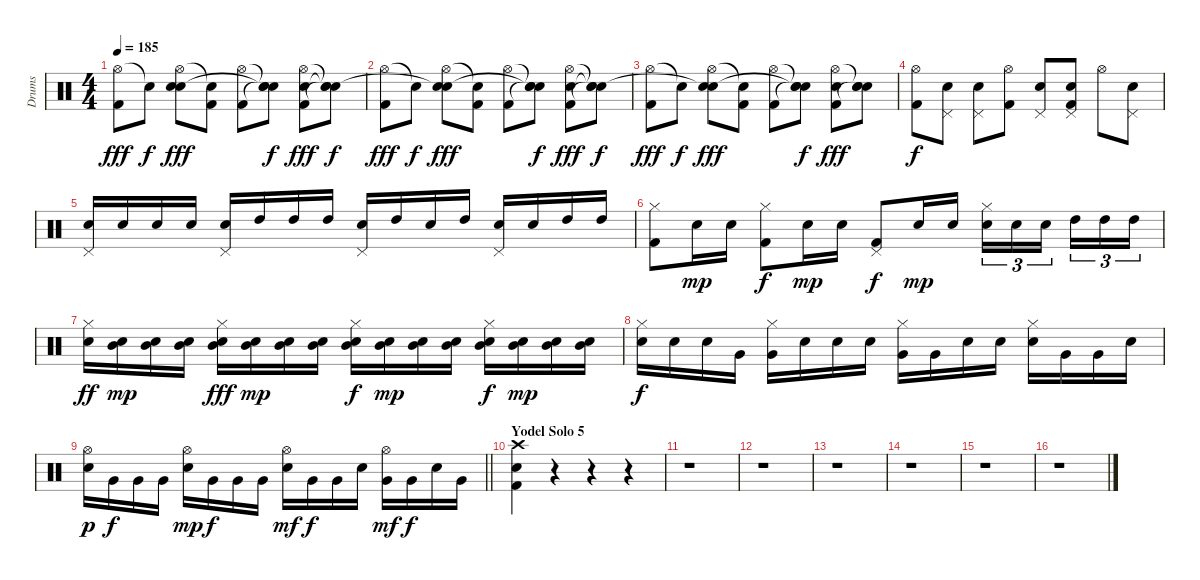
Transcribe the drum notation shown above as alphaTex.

\track ("Drums" "Drums") {instrument percussion}
\staff {score}
\articulation defaults
\ts (4 4)
\tempo 185
\clef neutral
\ks c
("Hi-Hat (open)" "Kick (hit) 2").8{dy fff} "Snare (hit)"{t}.8{dy f} ("Hi-Hat (open)" "Electric Snare (hit)" "Snare (hit)"{t}).8{dy fff} ("Snare (hit)"{t} "Kick (hit) 2").8 ("Hi-Hat (open)" "Kick (hit) 2").8 ("Snare (hit)"{t} "Snare (hit)"{t} "Snare (hit)"{t}).8{dy f} ("Hi-Hat (open)" "Electric Snare (hit)" "Kick (hit) 2").8{dy fff} ("Snare (hit)"{t} "Snare (hit)"{t} "Snare (hit)"{t}).8{dy f} |
("Hi-Hat (open)" "Kick (hit) 2").8{dy fff} "Snare (hit)"{t}.8{dy f} ("Hi-Hat (open)" "Electric Snare (hit)" "Snare (hit)"{t}).8{dy fff} ("Snare (hit)"{t} "Kick (hit) 2").8 ("Hi-Hat (open)" "Kick (hit) 2").8 ("Snare (hit)"{t} "Snare (hit)"{t} "Snare (hit)"{t}).8{dy f} ("Hi-Hat (open)" "Electric Snare (hit)" "Kick (hit) 2").8{dy fff} ("Snare (hit)"{t} "Snare (hit)"{t} "Snare (hit)"{t}).8{dy f} |
("Hi-Hat (open)" "Kick (hit) 2").8{dy fff} "Snare (hit)"{t}.8{dy f} ("Hi-Hat (open)" "Electric Snare (hit)" "Snare (hit)"{t}).8{dy fff} ("Snare (hit)"{t} "Kick (hit) 2").8 ("Hi-Hat (open)" "Kick (hit) 2").8 ("Snare (hit)"{t} "Snare (hit)"{t} "Snare (hit)"{t}).8{dy f} ("Hi-Hat (open)" "Electric Snare (hit)" "Kick (hit) 2").8{dy fff} ("Snare (hit)"{t} "Electric Snare (hit)" "Snare (hit)"{t}).8 |
("Hi-Hat (open)" "Kick (hit) 2").8{dy f} ("Pedal Hi-Hat (hit)" "Electric Snare (hit)").8 ("Pedal Hi-Hat (hit)" "Electric Snare (hit)").8 ("Hi-Hat (open)" "Kick (hit) 2").8 ("Pedal Hi-Hat (hit)" "Electric Snare (hit)").8 ("Pedal Hi-Hat (hit)" "Electric Snare (hit)" "Kick (hit) 2").8 "Hi-Hat (open)".8 ("Pedal Hi-Hat (hit)" "Electric Snare (hit)").8 |
("Pedal Hi-Hat (hit)" "Electric Snare (hit)").16 "Electric Snare (hit)".16 "Electric Snare (hit)".16 "Electric Snare (hit)".16 ("Pedal Hi-Hat (hit)" "Electric Snare (hit)").16 "High Tom (hit)".16 "High Tom (hit)".16 "High Tom (hit)".16 ("Pedal Hi-Hat (hit)" "Electric Snare (hit)").16 "High Tom (hit)".16 "Electric Snare (hit)".16 "High Tom (hit)".16 ("Pedal Hi-Hat (hit)" "Electric Snare (hit)").16 "Electric Snare (hit)".16 "High Tom (hit)".16 "High Tom (hit)".16 |
("Hi-Hat (closed)" "Kick (hit) 2").8 "Electric Snare (hit)".16{dy mp} "Electric Snare (hit)".16 ("Hi-Hat (closed)" "Kick (hit) 2").8{dy f} "Electric Snare (hit)".16{dy mp} "Electric Snare (hit)".16 ("Pedal Hi-Hat (hit)" "Kick (hit) 2").8{dy f} "Electric Snare (hit)".16{dy mp} "Electric Snare (hit)".16 ("Hi-Hat (closed)" "Electric Snare (hit)").16{tu (3 2)} "Electric Snare (hit)".16{tu (3 2)} "Electric Snare (hit)".16{tu (3 2) beam splitsecondary} "High Tom (hit)".16{tu (3 2)} "High Tom (hit)".16{tu (3 2)} "High Tom (hit)".16{tu (3 2)} |
("Hi-Hat (closed)" "Electric Snare (hit)").16{dy ff} ("Electric Snare (hit)" "Mid Tom (hit)").16{dy mp} ("Electric Snare (hit)" "Mid Tom (hit)").16 ("Electric Snare (hit)" "Mid Tom (hit)").16 ("Hi-Hat (closed)" "Electric Snare (hit)" "Mid Tom (hit)").16{dy fff} ("Electric Snare (hit)" "Mid Tom (hit)").16{dy mp} ("Electric Snare (hit)" "Mid Tom (hit)").16 ("Electric Snare (hit)" "Mid Tom (hit)").16 ("Hi-Hat (closed)" "Electric Snare (hit)" "Mid Tom (hit)").16{dy f} ("Electric Snare (hit)" "Mid Tom (hit)").16{dy mp} ("Electric Snare (hit)" "Mid Tom (hit)").16 ("Electric Snare (hit)" "Mid Tom (hit)").16 ("Hi-Hat (closed)" "Electric Snare (hit)" "Mid Tom (hit)").16{dy f} ("Electric Snare (hit)" "Mid Tom (hit)").16{dy mp} ("Electric Snare (hit)" "Mid Tom (hit)").16 ("Electric Snare (hit)" "Mid Tom (hit)").16 |
("Hi-Hat (closed)" "Electric Snare (hit)").16{dy f} "Electric Snare (hit)".16 "Electric Snare (hit)".16 "Very Low Tom (hit)".16 ("Hi-Hat (closed)" "Very Low Tom (hit)").16 "Electric Snare (hit)".16 "Electric Snare (hit)".16 "Electric Snare (hit)".16 ("Hi-Hat (closed)" "Very Low Tom (hit)").16 "Very Low Tom (hit)".16 "Electric Snare (hit)".16 "Electric Snare (hit)".16 ("Hi-Hat (closed)" "Electric Snare (hit)").16 "Very Low Tom (hit)".16 "Very Low Tom (hit)".16 "Electric Snare (hit)".16 |
\barLineRight lightlight
("Hi-Hat (open)" "Electric Snare (hit)").16{dy p} "Very Low Tom (hit)".16{dy f} "Very Low Tom (hit)".16 "Very Low Tom (hit)".16 ("Hi-Hat (open)" "Electric Snare (hit)").16{dy mp} "Very Low Tom (hit)".16{dy f} "Very Low Tom (hit)".16 "Very Low Tom (hit)".16 ("Hi-Hat (open)" "Electric Snare (hit)").16{dy mf} "Very Low Tom (hit)".16{dy f} "Very Low Tom (hit)".16 "Electric Snare (hit)".16 ("Hi-Hat (open)" "Very Low Tom (hit)").16{dy mf} "Very Low Tom (hit)".16{dy f} "Electric Snare (hit)".16 "Very Low Tom (hit)".16 |
\section ("" "Yodel Solo 5")
("Crash high (hit)" "Electric Snare (hit)" "Kick (hit) 2").4 r.4 r.4 r.4 |
r.1 |
r.1 |
r.1 |
r.1 |
r.1 |
r.1
